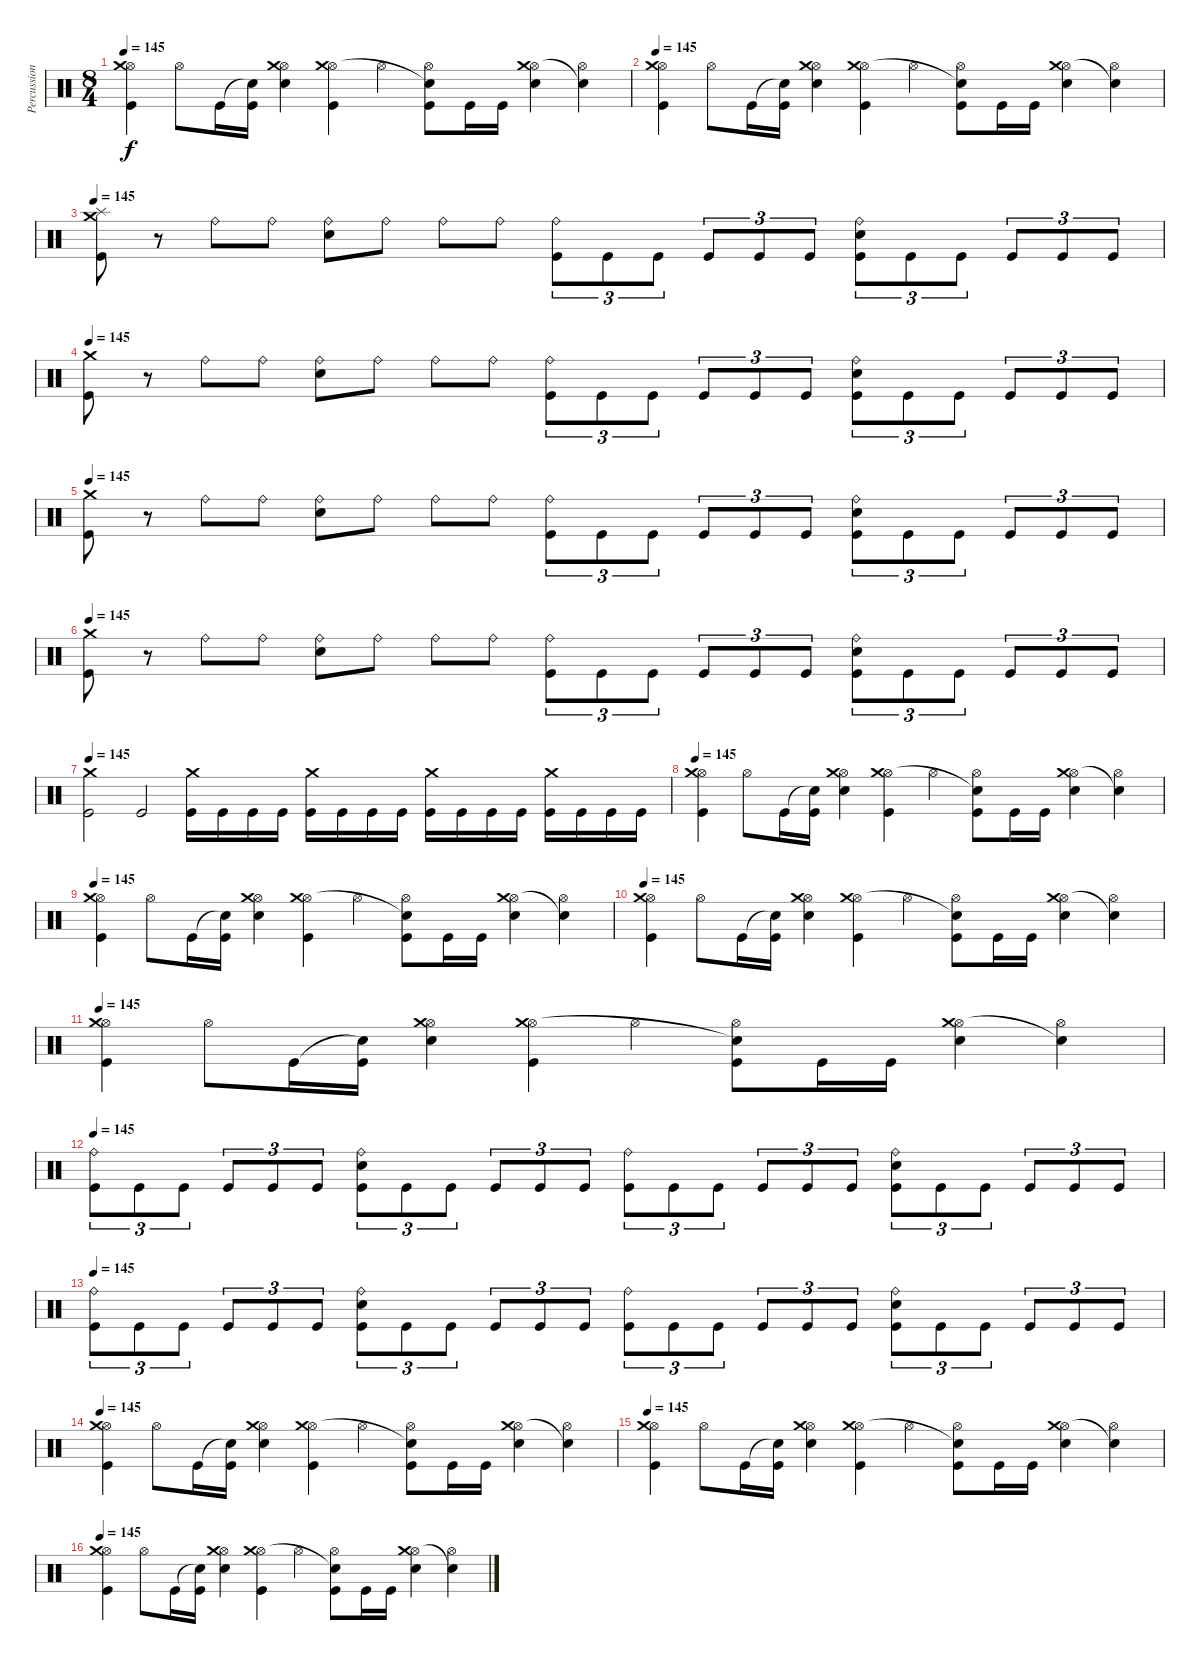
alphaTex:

\track ("Percussion" "Percussion") {instrument percussion}
\staff {score}
\articulation defaults
\ts (8 4)
\tempo 145
\clef neutral
\ks c
("Hi-Hat (open)" "Crash medium (hit)" "Kick (hit)").4{dy f} "Hi-Hat (open)".8 "Kick (hit)".16 ("Snare (hit)"{t} "Kick (hit)").16 ("Hi-Hat (open)" "Crash medium (hit)" "Electric Snare (hit)").4 ("Hi-Hat (open)" "Crash medium (hit)" "Kick (hit)").4 "Hi-Hat (open)".4 ("Hi-Hat (open)" "Snare (hit)"{t} "Kick (hit)").8 "Kick (hit)".16 "Kick (hit)".16 ("Hi-Hat (open)" "Crash medium (hit)" "Electric Snare (hit)").4 ("Hi-Hat (open)" "Snare (hit)"{t}).4 |
\tempo 145
("Hi-Hat (open)" "Crash medium (hit)" "Kick (hit)").4 "Hi-Hat (open)".8 "Kick (hit)".16 ("Snare (hit)"{t} "Kick (hit)").16 ("Hi-Hat (open)" "Crash medium (hit)" "Electric Snare (hit)").4 ("Hi-Hat (open)" "Crash medium (hit)" "Kick (hit)").4 "Hi-Hat (open)".4 ("Hi-Hat (open)" "Snare (hit)"{t} "Kick (hit)").8 "Kick (hit)".16 "Kick (hit)".16 ("Hi-Hat (open)" "Crash medium (hit)" "Electric Snare (hit)").4 ("Hi-Hat (open)" "Snare (hit)"{t}).4 |
\tempo 145
("Crash medium (hit)" "Splash (hit)" "Kick (hit)").8 r.8 "Ride (bell)".8 "Ride (bell)".8 ("Ride (bell)" "Electric Snare (hit)").8 "Ride (bell)".8 "Ride (bell)".8 "Ride (bell)".8 ("Ride (bell)" "Kick (hit)").8{tu (3 2)} "Kick (hit)".8{tu (3 2)} "Kick (hit)".8{tu (3 2)} "Kick (hit)".8{tu (3 2)} "Kick (hit)".8{tu (3 2)} "Kick (hit)".8{tu (3 2)} ("Ride (bell)" "Electric Snare (hit)" "Kick (hit)").8{tu (3 2)} "Kick (hit)".8{tu (3 2)} "Kick (hit)".8{tu (3 2)} "Kick (hit)".8{tu (3 2)} "Kick (hit)".8{tu (3 2)} "Kick (hit)".8{tu (3 2)} |
\tempo 145
("Crash medium (hit)" "Kick (hit)").8 r.8 "Ride (bell)".8 "Ride (bell)".8 ("Ride (bell)" "Electric Snare (hit)").8 "Ride (bell)".8 "Ride (bell)".8 "Ride (bell)".8 ("Ride (bell)" "Kick (hit)").8{tu (3 2)} "Kick (hit)".8{tu (3 2)} "Kick (hit)".8{tu (3 2)} "Kick (hit)".8{tu (3 2)} "Kick (hit)".8{tu (3 2)} "Kick (hit)".8{tu (3 2)} ("Ride (bell)" "Electric Snare (hit)" "Kick (hit)").8{tu (3 2)} "Kick (hit)".8{tu (3 2)} "Kick (hit)".8{tu (3 2)} "Kick (hit)".8{tu (3 2)} "Kick (hit)".8{tu (3 2)} "Kick (hit)".8{tu (3 2)} |
\tempo 145
("Crash medium (hit)" "Kick (hit)").8 r.8 "Ride (bell)".8 "Ride (bell)".8 ("Ride (bell)" "Electric Snare (hit)").8 "Ride (bell)".8 "Ride (bell)".8 "Ride (bell)".8 ("Ride (bell)" "Kick (hit)").8{tu (3 2)} "Kick (hit)".8{tu (3 2)} "Kick (hit)".8{tu (3 2)} "Kick (hit)".8{tu (3 2)} "Kick (hit)".8{tu (3 2)} "Kick (hit)".8{tu (3 2)} ("Ride (bell)" "Electric Snare (hit)" "Kick (hit)").8{tu (3 2)} "Kick (hit)".8{tu (3 2)} "Kick (hit)".8{tu (3 2)} "Kick (hit)".8{tu (3 2)} "Kick (hit)".8{tu (3 2)} "Kick (hit)".8{tu (3 2)} |
\tempo 145
("Crash medium (hit)" "Kick (hit)").8 r.8 "Ride (bell)".8 "Ride (bell)".8 ("Ride (bell)" "Electric Snare (hit)").8 "Ride (bell)".8 "Ride (bell)".8 "Ride (bell)".8 ("Ride (bell)" "Kick (hit)").8{tu (3 2)} "Kick (hit)".8{tu (3 2)} "Kick (hit)".8{tu (3 2)} "Kick (hit)".8{tu (3 2)} "Kick (hit)".8{tu (3 2)} "Kick (hit)".8{tu (3 2)} ("Ride (bell)" "Electric Snare (hit)" "Kick (hit)").8{tu (3 2)} "Kick (hit)".8{tu (3 2)} "Kick (hit)".8{tu (3 2)} "Kick (hit)".8{tu (3 2)} "Kick (hit)".8{tu (3 2)} "Kick (hit)".8{tu (3 2)} |
\tempo 145
("Crash medium (hit)" "Kick (hit)").2 "Kick (hit)".2 ("Crash medium (hit)" "Kick (hit)").16 "Kick (hit)".16 "Kick (hit)".16 "Kick (hit)".16 ("Crash medium (hit)" "Kick (hit)").16 "Kick (hit)".16 "Kick (hit)".16 "Kick (hit)".16 ("Crash medium (hit)" "Kick (hit)").16 "Kick (hit)".16 "Kick (hit)".16 "Kick (hit)".16 ("Crash medium (hit)" "Kick (hit)").16 "Kick (hit)".16 "Kick (hit)".16 "Kick (hit)".16 |
\tempo 145
("Hi-Hat (open)" "Crash medium (hit)" "Kick (hit)").4 "Hi-Hat (open)".8 "Kick (hit)".16 ("Snare (hit)"{t} "Kick (hit)").16 ("Hi-Hat (open)" "Crash medium (hit)" "Electric Snare (hit)").4 ("Hi-Hat (open)" "Crash medium (hit)" "Kick (hit)").4 "Hi-Hat (open)".4 ("Hi-Hat (open)" "Snare (hit)"{t} "Kick (hit)").8 "Kick (hit)".16 "Kick (hit)".16 ("Hi-Hat (open)" "Crash medium (hit)" "Electric Snare (hit)").4 ("Hi-Hat (open)" "Snare (hit)"{t}).4 |
\tempo 145
("Hi-Hat (open)" "Crash medium (hit)" "Kick (hit)").4 "Hi-Hat (open)".8 "Kick (hit)".16 ("Snare (hit)"{t} "Kick (hit)").16 ("Hi-Hat (open)" "Crash medium (hit)" "Electric Snare (hit)").4 ("Hi-Hat (open)" "Crash medium (hit)" "Kick (hit)").4 "Hi-Hat (open)".4 ("Hi-Hat (open)" "Snare (hit)"{t} "Kick (hit)").8 "Kick (hit)".16 "Kick (hit)".16 ("Hi-Hat (open)" "Crash medium (hit)" "Electric Snare (hit)").4 ("Hi-Hat (open)" "Snare (hit)"{t}).4 |
\tempo 145
("Hi-Hat (open)" "Crash medium (hit)" "Kick (hit)").4 "Hi-Hat (open)".8 "Kick (hit)".16 ("Snare (hit)"{t} "Kick (hit)").16 ("Hi-Hat (open)" "Crash medium (hit)" "Electric Snare (hit)").4 ("Hi-Hat (open)" "Crash medium (hit)" "Kick (hit)").4 "Hi-Hat (open)".4 ("Hi-Hat (open)" "Snare (hit)"{t} "Kick (hit)").8 "Kick (hit)".16 "Kick (hit)".16 ("Hi-Hat (open)" "Crash medium (hit)" "Electric Snare (hit)").4 ("Hi-Hat (open)" "Snare (hit)"{t}).4 |
\tempo 145
("Hi-Hat (open)" "Crash medium (hit)" "Kick (hit)").4 "Hi-Hat (open)".8 "Kick (hit)".16 ("Snare (hit)"{t} "Kick (hit)").16 ("Hi-Hat (open)" "Crash medium (hit)" "Electric Snare (hit)").4 ("Hi-Hat (open)" "Crash medium (hit)" "Kick (hit)").4 "Hi-Hat (open)".4 ("Hi-Hat (open)" "Snare (hit)"{t} "Kick (hit)").8 "Kick (hit)".16 "Kick (hit)".16 ("Hi-Hat (open)" "Crash medium (hit)" "Electric Snare (hit)").4 ("Hi-Hat (open)" "Snare (hit)"{t}).4 |
\tempo 145
("Ride (bell)" "Kick (hit)").8{tu (3 2)} "Kick (hit)".8{tu (3 2)} "Kick (hit)".8{tu (3 2)} "Kick (hit)".8{tu (3 2)} "Kick (hit)".8{tu (3 2)} "Kick (hit)".8{tu (3 2)} ("Ride (bell)" "Electric Snare (hit)" "Kick (hit)").8{tu (3 2)} "Kick (hit)".8{tu (3 2)} "Kick (hit)".8{tu (3 2)} "Kick (hit)".8{tu (3 2)} "Kick (hit)".8{tu (3 2)} "Kick (hit)".8{tu (3 2)} ("Ride (bell)" "Kick (hit)").8{tu (3 2)} "Kick (hit)".8{tu (3 2)} "Kick (hit)".8{tu (3 2)} "Kick (hit)".8{tu (3 2)} "Kick (hit)".8{tu (3 2)} "Kick (hit)".8{tu (3 2)} ("Ride (bell)" "Electric Snare (hit)" "Kick (hit)").8{tu (3 2)} "Kick (hit)".8{tu (3 2)} "Kick (hit)".8{tu (3 2)} "Kick (hit)".8{tu (3 2)} "Kick (hit)".8{tu (3 2)} "Kick (hit)".8{tu (3 2)} |
\tempo 145
("Ride (bell)" "Kick (hit)").8{tu (3 2)} "Kick (hit)".8{tu (3 2)} "Kick (hit)".8{tu (3 2)} "Kick (hit)".8{tu (3 2)} "Kick (hit)".8{tu (3 2)} "Kick (hit)".8{tu (3 2)} ("Ride (bell)" "Electric Snare (hit)" "Kick (hit)").8{tu (3 2)} "Kick (hit)".8{tu (3 2)} "Kick (hit)".8{tu (3 2)} "Kick (hit)".8{tu (3 2)} "Kick (hit)".8{tu (3 2)} "Kick (hit)".8{tu (3 2)} ("Ride (bell)" "Kick (hit)").8{tu (3 2)} "Kick (hit)".8{tu (3 2)} "Kick (hit)".8{tu (3 2)} "Kick (hit)".8{tu (3 2)} "Kick (hit)".8{tu (3 2)} "Kick (hit)".8{tu (3 2)} ("Ride (bell)" "Electric Snare (hit)" "Kick (hit)").8{tu (3 2)} "Kick (hit)".8{tu (3 2)} "Kick (hit)".8{tu (3 2)} "Kick (hit)".8{tu (3 2)} "Kick (hit)".8{tu (3 2)} "Kick (hit)".8{tu (3 2)} |
\tempo 145
("Hi-Hat (open)" "Crash medium (hit)" "Kick (hit)").4 "Hi-Hat (open)".8 "Kick (hit)".16 ("Snare (hit)"{t} "Kick (hit)").16 ("Hi-Hat (open)" "Crash medium (hit)" "Electric Snare (hit)").4 ("Hi-Hat (open)" "Crash medium (hit)" "Kick (hit)").4 "Hi-Hat (open)".4 ("Hi-Hat (open)" "Snare (hit)"{t} "Kick (hit)").8 "Kick (hit)".16 "Kick (hit)".16 ("Hi-Hat (open)" "Crash medium (hit)" "Electric Snare (hit)").4 ("Hi-Hat (open)" "Snare (hit)"{t}).4 |
\tempo 145
("Hi-Hat (open)" "Crash medium (hit)" "Kick (hit)").4 "Hi-Hat (open)".8 "Kick (hit)".16 ("Snare (hit)"{t} "Kick (hit)").16 ("Hi-Hat (open)" "Crash medium (hit)" "Electric Snare (hit)").4 ("Hi-Hat (open)" "Crash medium (hit)" "Kick (hit)").4 "Hi-Hat (open)".4 ("Hi-Hat (open)" "Snare (hit)"{t} "Kick (hit)").8 "Kick (hit)".16 "Kick (hit)".16 ("Hi-Hat (open)" "Crash medium (hit)" "Electric Snare (hit)").4 ("Hi-Hat (open)" "Snare (hit)"{t}).4 |
\tempo 145
("Hi-Hat (open)" "Crash medium (hit)" "Kick (hit)").4 "Hi-Hat (open)".8 "Kick (hit)".16 ("Snare (hit)"{t} "Kick (hit)").16 ("Hi-Hat (open)" "Crash medium (hit)" "Electric Snare (hit)").4 ("Hi-Hat (open)" "Crash medium (hit)" "Kick (hit)").4 "Hi-Hat (open)".4 ("Hi-Hat (open)" "Snare (hit)"{t} "Kick (hit)").8 "Kick (hit)".16 "Kick (hit)".16 ("Hi-Hat (open)" "Crash medium (hit)" "Electric Snare (hit)").4 ("Hi-Hat (open)" "Snare (hit)"{t}).4
